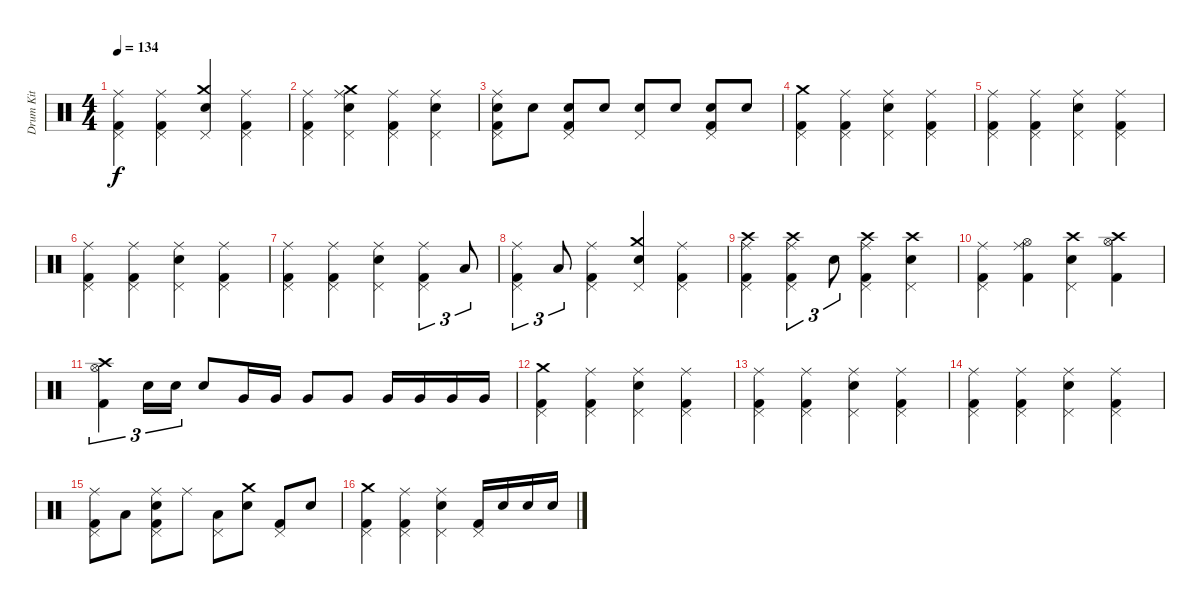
\track ("Drum Kit" "Drum Kit") {instrument percussion}
\staff {score}
\articulation defaults
\ts (4 4)
\tempo 134
\clef neutral
\ks c
("Ride (middle)" "Pedal Hi-Hat (hit)" "Kick (hit) 2").4{dy f} ("Ride (middle)" "Pedal Hi-Hat (hit)" "Kick (hit) 2").4 ("Crash medium (hit)" "Pedal Hi-Hat (hit)" "Snare (hit) 2").4 ("Ride (middle)" "Pedal Hi-Hat (hit)" "Kick (hit) 2").4 |
("Ride (middle)" "Pedal Hi-Hat (hit)" "Kick (hit) 2").4 ("Crash medium (hit)" "Ride (middle)" "Pedal Hi-Hat (hit)" "Snare (hit) 2").4 ("Ride (middle)" "Pedal Hi-Hat (hit)" "Kick (hit) 2").4 ("Ride (middle)" "Pedal Hi-Hat (hit)" "Snare (hit) 2").4 |
("Ride (middle)" "Pedal Hi-Hat (hit)" "Snare (hit) 2" "Kick (hit) 2").8 "Snare (hit) 2".8 ("Pedal Hi-Hat (hit)" "Snare (hit) 2" "Kick (hit) 2").8 "Snare (hit) 2".8 ("Pedal Hi-Hat (hit)" "Snare (hit) 2").8 "Snare (hit) 2".8 ("Pedal Hi-Hat (hit)" "Snare (hit) 2" "Kick (hit) 2").8 "Snare (hit) 2".8 |
("Crash medium (hit)" "Pedal Hi-Hat (hit)" "Kick (hit) 2").4{volume 12} ("Ride (middle)" "Pedal Hi-Hat (hit)" "Kick (hit) 2").4 ("Ride (middle)" "Pedal Hi-Hat (hit)" "Snare (hit) 2").4 ("Ride (middle)" "Pedal Hi-Hat (hit)" "Kick (hit) 2").4 |
("Ride (middle)" "Pedal Hi-Hat (hit)" "Kick (hit) 2").4 ("Ride (middle)" "Pedal Hi-Hat (hit)" "Kick (hit) 2").4 ("Ride (middle)" "Pedal Hi-Hat (hit)" "Snare (hit) 2").4 ("Ride (middle)" "Pedal Hi-Hat (hit)" "Kick (hit) 2").4 |
("Ride (middle)" "Pedal Hi-Hat (hit)" "Kick (hit) 2").4 ("Ride (middle)" "Pedal Hi-Hat (hit)" "Kick (hit) 2").4 ("Ride (middle)" "Pedal Hi-Hat (hit)" "Snare (hit) 2").4 ("Ride (middle)" "Pedal Hi-Hat (hit)" "Kick (hit) 2").4 |
("Ride (middle)" "Pedal Hi-Hat (hit)" "Kick (hit) 2").4 ("Ride (middle)" "Pedal Hi-Hat (hit)" "Kick (hit) 2").4 ("Ride (middle)" "Pedal Hi-Hat (hit)" "Snare (hit) 2").4 ("Ride (middle)" "Pedal Hi-Hat (hit)" "Kick (hit) 2").4{tu (3 2)} "Low Tom (hit)".8{tu (3 2)} |
("Ride (middle)" "Pedal Hi-Hat (hit)" "Kick (hit) 2").4{tu (3 2)} "Low Tom (hit)".8{tu (3 2)} ("Ride (middle)" "Pedal Hi-Hat (hit)" "Kick (hit) 2").4 ("Crash medium (hit)" "Pedal Hi-Hat (hit)" "Snare (hit) 2").4 ("Ride (middle)" "Pedal Hi-Hat (hit)" "Kick (hit) 2").4 |
("Crash high (hit)" "Ride (middle)" "Pedal Hi-Hat (hit)" "Kick (hit) 2").4 ("Crash high (hit)" "Ride (middle)" "Pedal Hi-Hat (hit)" "Kick (hit) 2").4{tu (3 2)} "Snare (hit) 2".8{tu (3 2)} ("Crash high (hit)" "Ride (middle)" "Pedal Hi-Hat (hit)" "Kick (hit) 2").4 ("Crash high (hit)" "Pedal Hi-Hat (hit)" "Snare (hit) 2").4 |
("Ride (middle)" "Pedal Hi-Hat (hit)" "Kick (hit) 2").4 ("Ride (middle)" "Hi-Hat (open)" "Kick (hit) 2").4 ("Crash high (hit)" "Pedal Hi-Hat (hit)" "Snare (hit) 2").4 ("Crash high (hit)" "Hi-Hat (open)" "Kick (hit) 2").4 |
("Crash high (hit)" "Hi-Hat (open)" "Kick (hit) 2").4{tu (3 2)} "Snare (hit) 2".16{tu (3 2)} "Snare (hit) 2".16{tu (3 2)} "Snare (hit) 2".8 "Very Low Tom (hit)".16 "Very Low Tom (hit)".16 "Very Low Tom (hit)".8 "Very Low Tom (hit)".8 "Very Low Tom (hit)".16 "Very Low Tom (hit)".16 "Very Low Tom (hit)".16 "Very Low Tom (hit)".16 |
("Crash medium (hit)" "Pedal Hi-Hat (hit)" "Kick (hit) 2").4 ("Ride (middle)" "Pedal Hi-Hat (hit)" "Kick (hit) 2").4 ("Ride (middle)" "Pedal Hi-Hat (hit)" "Snare (hit) 2").4 ("Ride (middle)" "Pedal Hi-Hat (hit)" "Kick (hit) 2").4 |
("Ride (middle)" "Pedal Hi-Hat (hit)" "Kick (hit) 2").4 ("Ride (middle)" "Pedal Hi-Hat (hit)" "Kick (hit) 2").4 ("Ride (middle)" "Pedal Hi-Hat (hit)" "Snare (hit) 2").4 ("Ride (middle)" "Pedal Hi-Hat (hit)" "Kick (hit) 2").4 |
("Ride (middle)" "Pedal Hi-Hat (hit)" "Kick (hit) 2").4 ("Ride (middle)" "Pedal Hi-Hat (hit)" "Kick (hit) 2").4 ("Ride (middle)" "Pedal Hi-Hat (hit)" "Snare (hit) 2").4 ("Ride (middle)" "Pedal Hi-Hat (hit)" "Kick (hit) 2").4 |
("Ride (middle)" "Pedal Hi-Hat (hit)" "Kick (hit) 2").8 "Low Tom (hit)".8 ("Ride (middle)" "Pedal Hi-Hat (hit)" "Snare (hit) 2" "Kick (hit) 2").8 "Ride (middle)".8 ("Pedal Hi-Hat (hit)" "Low Tom (hit)").8 ("Crash medium (hit)" "Snare (hit) 2").8 ("Pedal Hi-Hat (hit)" "Kick (hit) 2").8 "Snare (hit) 2".8 |
("Crash medium (hit)" "Pedal Hi-Hat (hit)" "Kick (hit) 2").4 ("Ride (middle)" "Pedal Hi-Hat (hit)" "Kick (hit) 2").4 ("Ride (middle)" "Pedal Hi-Hat (hit)" "Snare (hit) 2").4 ("Pedal Hi-Hat (hit)" "Kick (hit) 2").16 "Snare (hit) 2".16 "Snare (hit) 2".16 "Snare (hit) 2".16
